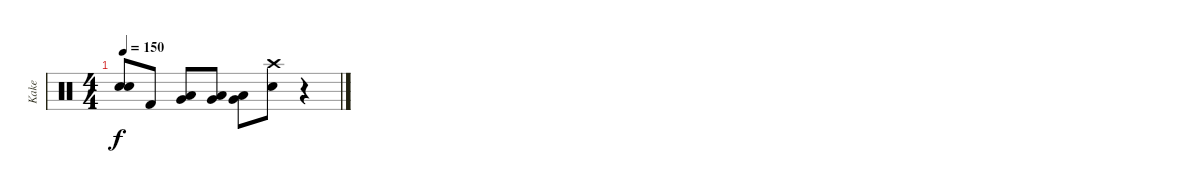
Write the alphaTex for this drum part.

\track ("Kake" "Kake") {instrument percussion}
\staff {score}
\articulation defaults
\ts (4 4)
\tempo 150
\clef neutral
\ks c
("Electric Snare (hit)" "Electric Snare (hit)").8{dy f} "Kick (hit) 2".8 ("Very Low Tom (hit)" "Low Floor Tom (hit)").8 ("Very Low Tom (hit)" "Low Floor Tom (hit)").8 ("Very Low Tom (hit)" "Low Floor Tom (hit)").8 ("Crash high (hit)" "Electric Snare (hit)").8 r.4
